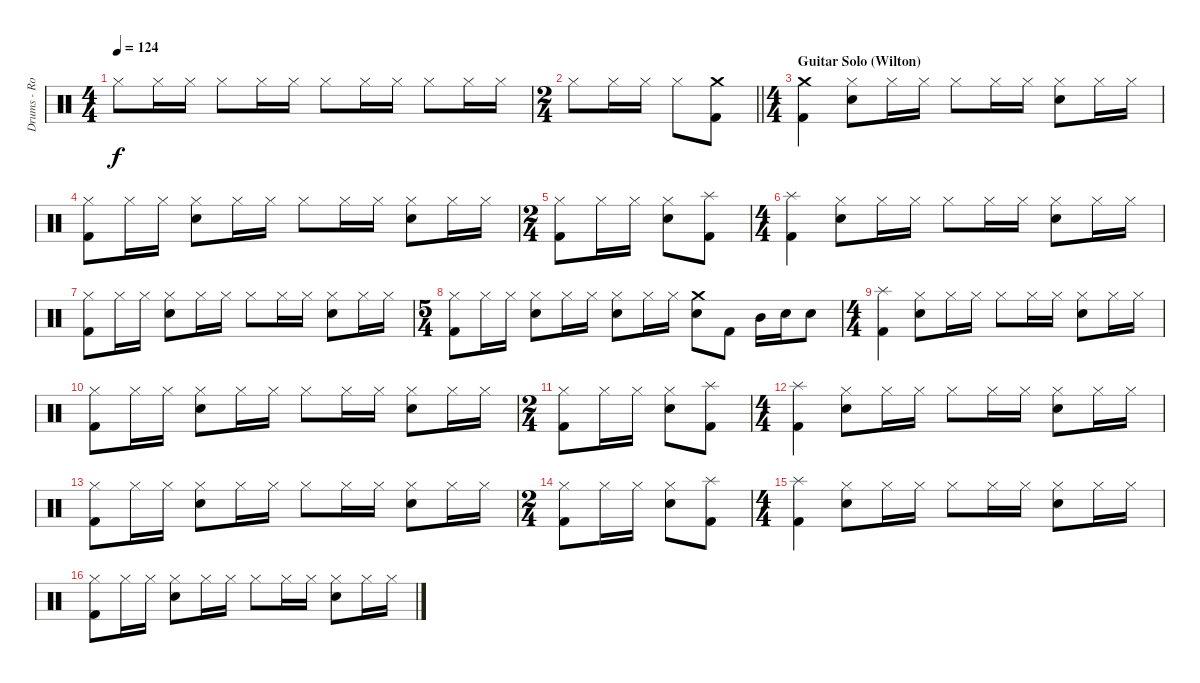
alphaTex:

\track ("Drums - Rockenfield" "Drums - Ro") {instrument percussion}
\staff {score}
\articulation defaults
\ts (4 4)
\tempo 124
\clef neutral
\ks c "Hi-Hat (closed)".8{dy f} "Hi-Hat (closed)".16 "Hi-Hat (closed)".16 "Hi-Hat (closed)".8 "Hi-Hat (closed)".16 "Hi-Hat (closed)".16 "Hi-Hat (closed)".8 "Hi-Hat (closed)".16 "Hi-Hat (closed)".16 "Hi-Hat (closed)".8 "Hi-Hat (closed)".16 "Hi-Hat (closed)".16
|
\ts (2 4)
\barLineRight lightlight "Hi-Hat (closed)".8 "Hi-Hat (closed)".16 "Hi-Hat (closed)".16 "Hi-Hat (closed)".8
("Crash medium (hit)" "Kick (hit) 2").8 |
\ts (4 4)
\section ("" "Guitar Solo (Wilton)")
("Crash medium (hit)" "Kick (hit) 2").4 ("Hi-Hat (closed)" "Snare (hit) 2").8 "Hi-Hat (closed)".16 "Hi-Hat (closed)".16 "Hi-Hat (closed)".8 "Hi-Hat (closed)".16 "Hi-Hat (closed)".16 ("Hi-Hat (closed)" "Snare (hit) 2").8 "Hi-Hat (closed)".16 "Hi-Hat (closed)".16 |
("Hi-Hat (closed)" "Kick (hit) 2").8 "Hi-Hat (closed)".16 "Hi-Hat (closed)".16 ("Hi-Hat (closed)" "Snare (hit) 2").8 "Hi-Hat (closed)".16 "Hi-Hat (closed)".16 "Hi-Hat (closed)".8 "Hi-Hat (closed)".16 "Hi-Hat (closed)".16 ("Hi-Hat (closed)" "Snare (hit) 2").8 "Hi-Hat (closed)".16 "Hi-Hat (closed)".16 |
\ts (2 4)
("Hi-Hat (closed)" "Kick (hit) 2").8 "Hi-Hat (closed)".16 "Hi-Hat (closed)".16 ("Hi-Hat (closed)" "Snare (hit) 2").8 ("Splash (hit)" "Kick (hit) 2").8 |
\ts (4 4)
("Splash (hit)" "Kick (hit) 2").4 ("Hi-Hat (closed)" "Snare (hit) 2").8 "Hi-Hat (closed)".16 "Hi-Hat (closed)".16 "Hi-Hat (closed)".8 "Hi-Hat (closed)".16 "Hi-Hat (closed)".16 ("Hi-Hat (closed)" "Snare (hit) 2").8 "Hi-Hat (closed)".16 "Hi-Hat (closed)".16 |
("Hi-Hat (closed)" "Kick (hit) 2").8 "Hi-Hat (closed)".16 "Hi-Hat (closed)".16 ("Hi-Hat (closed)" "Snare (hit) 2").8 "Hi-Hat (closed)".16 "Hi-Hat (closed)".16 "Hi-Hat (closed)".8 "Hi-Hat (closed)".16 "Hi-Hat (closed)".16 ("Hi-Hat (closed)" "Snare (hit) 2").8 "Hi-Hat (closed)".16 "Hi-Hat (closed)".16 |
\ts (5 4)
("Hi-Hat (closed)" "Kick (hit) 2").8 "Hi-Hat (closed)".16 "Hi-Hat (closed)".16 ("Hi-Hat (closed)" "Snare (hit) 2").8 "Hi-Hat (closed)".16 "Hi-Hat (closed)".16 ("Hi-Hat (closed)" "Snare (hit) 2").8 "Hi-Hat (closed)".16 "Hi-Hat (closed)".16 ("Crash medium (hit)" "Snare (hit) 2").8 "Kick (hit) 2".8 "Mid Tom (hit)".16 "Snare (hit) 2".16 "Snare (hit) 2".8 |
\ts (4 4)
("Splash (hit)" "Kick (hit) 2").4 ("Hi-Hat (closed)" "Snare (hit) 2").8 "Hi-Hat (closed)".16 "Hi-Hat (closed)".16 "Hi-Hat (closed)".8 "Hi-Hat (closed)".16 "Hi-Hat (closed)".16 ("Hi-Hat (closed)" "Snare (hit) 2").8 "Hi-Hat (closed)".16 "Hi-Hat (closed)".16 |
("Hi-Hat (closed)" "Kick (hit) 2").8 "Hi-Hat (closed)".16 "Hi-Hat (closed)".16 ("Hi-Hat (closed)" "Snare (hit) 2").8 "Hi-Hat (closed)".16 "Hi-Hat (closed)".16 "Hi-Hat (closed)".8 "Hi-Hat (closed)".16 "Hi-Hat (closed)".16 ("Hi-Hat (closed)" "Snare (hit) 2").8 "Hi-Hat (closed)".16 "Hi-Hat (closed)".16 |
\ts (2 4)
("Hi-Hat (closed)" "Kick (hit) 2").8 "Hi-Hat (closed)".16 "Hi-Hat (closed)".16 ("Hi-Hat (closed)" "Snare (hit) 2").8 ("Splash (hit)" "Kick (hit) 2").8 |
\ts (4 4)
("Splash (hit)" "Kick (hit) 2").4 ("Hi-Hat (closed)" "Snare (hit) 2").8 "Hi-Hat (closed)".16 "Hi-Hat (closed)".16 "Hi-Hat (closed)".8 "Hi-Hat (closed)".16 "Hi-Hat (closed)".16 ("Hi-Hat (closed)" "Snare (hit) 2").8 "Hi-Hat (closed)".16 "Hi-Hat (closed)".16 |
("Hi-Hat (closed)" "Kick (hit) 2").8 "Hi-Hat (closed)".16 "Hi-Hat (closed)".16 ("Hi-Hat (closed)" "Snare (hit) 2").8 "Hi-Hat (closed)".16 "Hi-Hat (closed)".16 "Hi-Hat (closed)".8 "Hi-Hat (closed)".16 "Hi-Hat (closed)".16 ("Hi-Hat (closed)" "Snare (hit) 2").8 "Hi-Hat (closed)".16 "Hi-Hat (closed)".16 |
\ts (2 4)
("Hi-Hat (closed)" "Kick (hit) 2").8 "Hi-Hat (closed)".16 "Hi-Hat (closed)".16 ("Hi-Hat (closed)" "Snare (hit) 2").8 ("Splash (hit)" "Kick (hit) 2").8 |
\ts (4 4)
("Splash (hit)" "Kick (hit) 2").4 ("Hi-Hat (closed)" "Snare (hit) 2").8 "Hi-Hat (closed)".16 "Hi-Hat (closed)".16 "Hi-Hat (closed)".8 "Hi-Hat (closed)".16 "Hi-Hat (closed)".16 ("Hi-Hat (closed)" "Snare (hit) 2").8 "Hi-Hat (closed)".16 "Hi-Hat (closed)".16 |
("Hi-Hat (closed)" "Kick (hit) 2").8 "Hi-Hat (closed)".16 "Hi-Hat (closed)".16 ("Hi-Hat (closed)" "Snare (hit) 2").8 "Hi-Hat (closed)".16 "Hi-Hat (closed)".16 "Hi-Hat (closed)".8 "Hi-Hat (closed)".16 "Hi-Hat (closed)".16 ("Hi-Hat (closed)" "Snare (hit) 2").8 "Hi-Hat (closed)".16 "Hi-Hat (closed)".16
